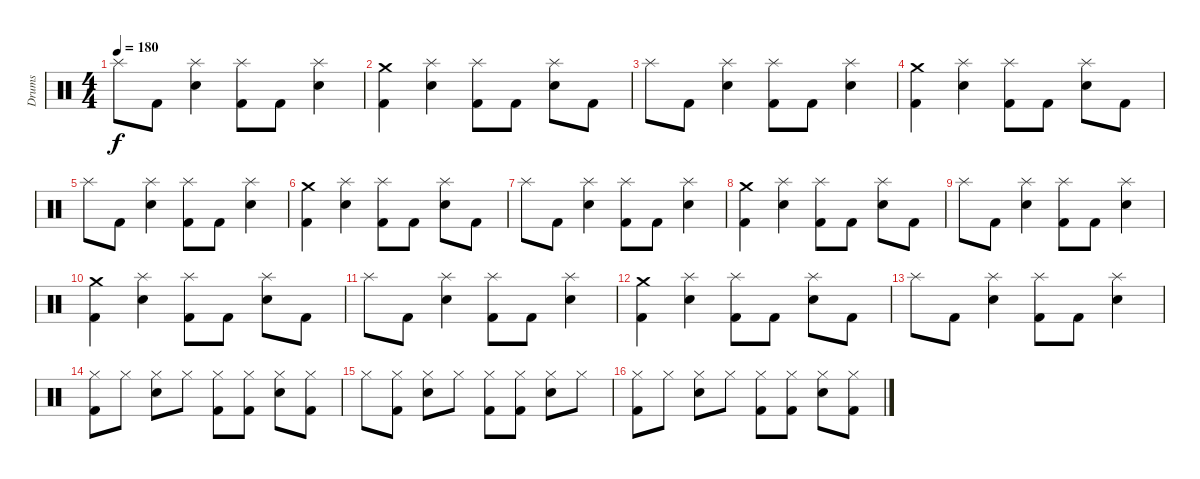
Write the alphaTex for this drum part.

\track ("Drums" "Drums") {instrument percussion}
\staff {score}
\articulation defaults
\ts (4 4)
\tempo 180
\clef neutral
\ks c "Splash (hit)".8{dy f} "Kick (hit) 2".8
("Splash (hit)" "Electric Snare (hit)").4 ("Splash (hit)" "Kick (hit) 2").8 "Kick (hit) 2".8 ("Splash (hit)" "Electric Snare (hit)").4 |
("Crash medium (hit)" "Kick (hit) 2").4 ("Splash (hit)" "Electric Snare (hit)").4 ("Splash (hit)" "Kick (hit) 2").8 "Kick (hit) 2".8 ("Splash (hit)" "Electric Snare (hit)").8 "Kick (hit) 2".8 |
"Splash (hit)".8 "Kick (hit) 2".8 ("Splash (hit)" "Electric Snare (hit)").4 ("Splash (hit)" "Kick (hit) 2").8 "Kick (hit) 2".8 ("Splash (hit)" "Electric Snare (hit)").4 |
("Crash medium (hit)" "Kick (hit) 2").4 ("Splash (hit)" "Electric Snare (hit)").4 ("Splash (hit)" "Kick (hit) 2").8 "Kick (hit) 2".8 ("Splash (hit)" "Electric Snare (hit)").8 "Kick (hit) 2".8 |
"Splash (hit)".8 "Kick (hit) 2".8 ("Splash (hit)" "Electric Snare (hit)").4 ("Splash (hit)" "Kick (hit) 2").8 "Kick (hit) 2".8 ("Splash (hit)" "Electric Snare (hit)").4 |
("Crash medium (hit)" "Kick (hit) 2").4 ("Splash (hit)" "Electric Snare (hit)").4 ("Splash (hit)" "Kick (hit) 2").8 "Kick (hit) 2".8 ("Splash (hit)" "Electric Snare (hit)").8 "Kick (hit) 2".8 |
"Splash (hit)".8 "Kick (hit) 2".8 ("Splash (hit)" "Electric Snare (hit)").4 ("Splash (hit)" "Kick (hit) 2").8 "Kick (hit) 2".8 ("Splash (hit)" "Electric Snare (hit)").4 |
("Crash medium (hit)" "Kick (hit) 2").4 ("Splash (hit)" "Electric Snare (hit)").4 ("Splash (hit)" "Kick (hit) 2").8 "Kick (hit) 2".8 ("Splash (hit)" "Electric Snare (hit)").8 "Kick (hit) 2".8 |
"Splash (hit)".8 "Kick (hit) 2".8 ("Splash (hit)" "Electric Snare (hit)").4 ("Splash (hit)" "Kick (hit) 2").8 "Kick (hit) 2".8 ("Splash (hit)" "Electric Snare (hit)").4 |
("Crash medium (hit)" "Kick (hit) 2").4 ("Splash (hit)" "Electric Snare (hit)").4 ("Splash (hit)" "Kick (hit) 2").8 "Kick (hit) 2".8 ("Splash (hit)" "Electric Snare (hit)").8 "Kick (hit) 2".8 |
"Splash (hit)".8 "Kick (hit) 2".8 ("Splash (hit)" "Electric Snare (hit)").4 ("Splash (hit)" "Kick (hit) 2").8 "Kick (hit) 2".8 ("Splash (hit)" "Electric Snare (hit)").4 |
("Crash medium (hit)" "Kick (hit) 2").4 ("Splash (hit)" "Electric Snare (hit)").4 ("Splash (hit)" "Kick (hit) 2").8 "Kick (hit) 2".8 ("Splash (hit)" "Electric Snare (hit)").8 "Kick (hit) 2".8 |
"Splash (hit)".8 "Kick (hit) 2".8 ("Splash (hit)" "Electric Snare (hit)").4 ("Splash (hit)" "Kick (hit) 2").8 "Kick (hit) 2".8 ("Splash (hit)" "Electric Snare (hit)").4 |
("Hi-Hat (closed)" "Kick (hit) 2").8 "Hi-Hat (closed)".8 ("Hi-Hat (closed)" "Electric Snare (hit)").8 "Hi-Hat (closed)".8 ("Hi-Hat (closed)" "Kick (hit) 2").8 ("Hi-Hat (closed)" "Kick (hit) 2").8 ("Hi-Hat (closed)" "Electric Snare (hit)").8 ("Hi-Hat (closed)" "Kick (hit) 2").8 |
"Hi-Hat (closed)".8 ("Hi-Hat (closed)" "Kick (hit) 2").8 ("Hi-Hat (closed)" "Electric Snare (hit)").8 "Hi-Hat (closed)".8 ("Hi-Hat (closed)" "Kick (hit) 2").8 ("Hi-Hat (closed)" "Kick (hit) 2").8 ("Hi-Hat (closed)" "Electric Snare (hit)").8 "Hi-Hat (closed)".8 |
("Hi-Hat (closed)" "Kick (hit) 2").8 "Hi-Hat (closed)".8 ("Hi-Hat (closed)" "Electric Snare (hit)").8 "Hi-Hat (closed)".8 ("Hi-Hat (closed)" "Kick (hit) 2").8 ("Hi-Hat (closed)" "Kick (hit) 2").8 ("Hi-Hat (closed)" "Electric Snare (hit)").8 ("Hi-Hat (closed)" "Kick (hit) 2").8
